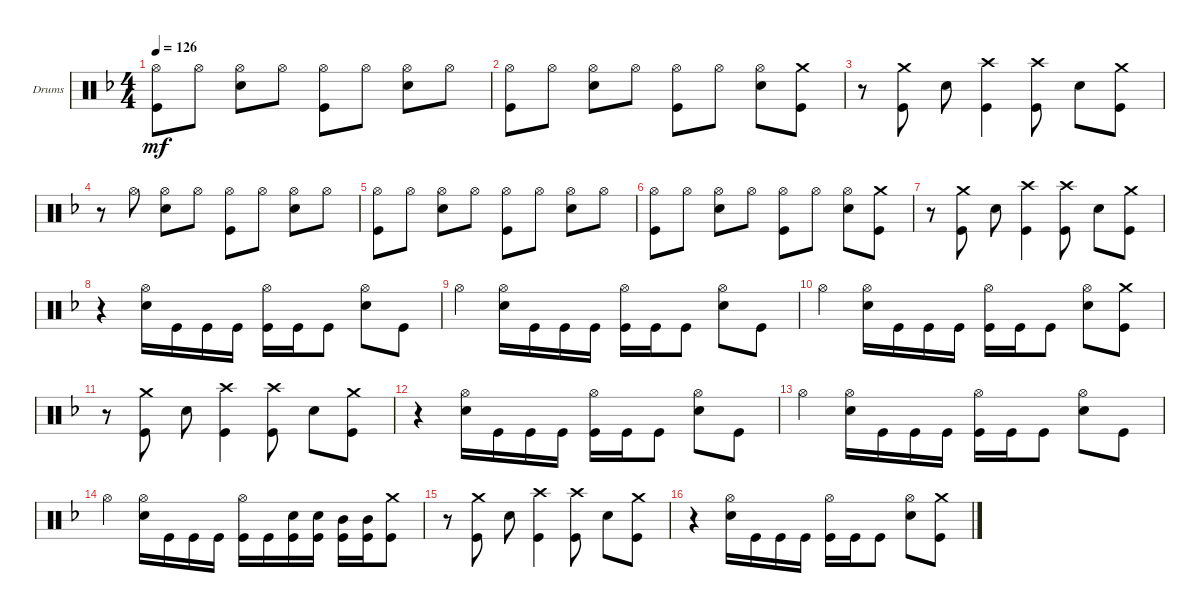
\defaultSystemsLayout 4
\bracketExtendMode groupsimilarinstruments
\firstSystemTrackNameOrientation horizontal
\otherSystemsTrackNameOrientation horizontal
\track ("Drumkit" "Drums") {instrument percussion}
\staff {score}
\articulation defaults
\ts (4 4)
\tempo 126
\clef neutral
\ks f
("Hi-Hat (open)" "Kick (hit)").8{dy mf} "Hi-Hat (open)".8 ("Hi-Hat (open)" "Snare (hit) 2").8 "Hi-Hat (open)".8 ("Hi-Hat (open)" "Kick (hit)").8 "Hi-Hat (open)".8 ("Hi-Hat (open)" "Snare (hit) 2").8 "Hi-Hat (open)".8 |
("Hi-Hat (open)" "Kick (hit)").8 "Hi-Hat (open)".8 ("Hi-Hat (open)" "Snare (hit) 2").8 "Hi-Hat (open)".8 ("Hi-Hat (open)" "Kick (hit)").8 "Hi-Hat (open)".8 ("Hi-Hat (open)" "Snare (hit) 2").8 ("Kick (hit)" "Crash medium (hit)").8 |
r.8 ("Crash medium (hit)" "Kick (hit)").8 "Snare (hit) 2".8 ("Kick (hit)" "Crash high (hit)").4 ("Kick (hit)" "Crash high (hit)").8 "Snare (hit) 2".8 ("Crash medium (hit)" "Kick (hit)").8 |
r.8 "Hi-Hat (open)".8 ("Hi-Hat (open)" "Snare (hit) 2").8 "Hi-Hat (open)".8 ("Hi-Hat (open)" "Kick (hit)").8 "Hi-Hat (open)".8 ("Hi-Hat (open)" "Snare (hit) 2").8 "Hi-Hat (open)".8 |
("Hi-Hat (open)" "Kick (hit)").8 "Hi-Hat (open)".8 ("Hi-Hat (open)" "Snare (hit) 2").8 "Hi-Hat (open)".8 ("Hi-Hat (open)" "Kick (hit)").8 "Hi-Hat (open)".8 ("Hi-Hat (open)" "Snare (hit) 2").8 "Hi-Hat (open)".8 |
("Hi-Hat (open)" "Kick (hit)").8 "Hi-Hat (open)".8 ("Hi-Hat (open)" "Snare (hit) 2").8 "Hi-Hat (open)".8 ("Hi-Hat (open)" "Kick (hit)").8 "Hi-Hat (open)".8 ("Hi-Hat (open)" "Snare (hit) 2").8 ("Kick (hit)" "Crash medium (hit)").8 |
r.8 ("Crash medium (hit)" "Kick (hit)").8 "Snare (hit) 2".8 ("Kick (hit)" "Crash high (hit)").4 ("Kick (hit)" "Crash high (hit)").8 "Snare (hit) 2".8 ("Crash medium (hit)" "Kick (hit)").8 |
r.4 ("Hi-Hat (open)" "Snare (hit) 2").16 "Kick (hit)".16 "Kick (hit)".16 "Kick (hit)".16 ("Hi-Hat (open)" "Kick (hit)").16 "Kick (hit)".16 "Kick (hit)".8 ("Hi-Hat (open)" "Snare (hit) 2").8 "Kick (hit)".8 |
"Hi-Hat (open)".4 ("Hi-Hat (open)" "Snare (hit) 2").16 "Kick (hit)".16 "Kick (hit)".16 "Kick (hit)".16 ("Hi-Hat (open)" "Kick (hit)").16 "Kick (hit)".16 "Kick (hit)".8 ("Hi-Hat (open)" "Snare (hit) 2").8 "Kick (hit)".8 |
"Hi-Hat (open)".4 ("Hi-Hat (open)" "Snare (hit) 2").16 "Kick (hit)".16 "Kick (hit)".16 "Kick (hit)".16 ("Hi-Hat (open)" "Kick (hit)").16 "Kick (hit)".16 "Kick (hit)".8 ("Hi-Hat (open)" "Snare (hit) 2").8 ("Kick (hit)" "Crash medium (hit)").8 |
r.8 ("Crash medium (hit)" "Kick (hit)").8 "Snare (hit) 2".8 ("Kick (hit)" "Crash high (hit)").4 ("Kick (hit)" "Crash high (hit)").8 "Snare (hit) 2".8 ("Crash medium (hit)" "Kick (hit)").8 |
r.4 ("Hi-Hat (open)" "Snare (hit) 2").16 "Kick (hit)".16 "Kick (hit)".16 "Kick (hit)".16 ("Hi-Hat (open)" "Kick (hit)").16 "Kick (hit)".16 "Kick (hit)".8 ("Hi-Hat (open)" "Snare (hit) 2").8 "Kick (hit)".8 |
"Hi-Hat (open)".4 ("Hi-Hat (open)" "Snare (hit) 2").16 "Kick (hit)".16 "Kick (hit)".16 "Kick (hit)".16 ("Hi-Hat (open)" "Kick (hit)").16 "Kick (hit)".16 "Kick (hit)".8 ("Hi-Hat (open)" "Snare (hit) 2").8 "Kick (hit)".8 |
"Hi-Hat (open)".4 ("Hi-Hat (open)" "Snare (hit) 2").16 "Kick (hit)".16 "Kick (hit)".16 "Kick (hit)".16 ("Hi-Hat (open)" "Kick (hit)").16 "Kick (hit)".16 ("Kick (hit)" "Snare (hit) 2").16 ("Kick (hit)" "Snare (hit) 2").16 ("Kick (hit)" "Mid Tom (hit)").16 ("Kick (hit)" "Mid Tom (hit)").16 ("Kick (hit)" "Crash medium (hit)").8 |
r.8 ("Crash medium (hit)" "Kick (hit)").8 "Snare (hit) 2".8 ("Kick (hit)" "Crash high (hit)").4 ("Kick (hit)" "Crash high (hit)").8 "Snare (hit) 2".8 ("Crash medium (hit)" "Kick (hit)").8 |
r.4 ("Hi-Hat (open)" "Snare (hit) 2").16 "Kick (hit)".16 "Kick (hit)".16 "Kick (hit)".16 ("Hi-Hat (open)" "Kick (hit)").16 "Kick (hit)".16 "Kick (hit)".8 ("Hi-Hat (open)" "Snare (hit) 2").8 ("Kick (hit)" "Crash medium (hit)").8
